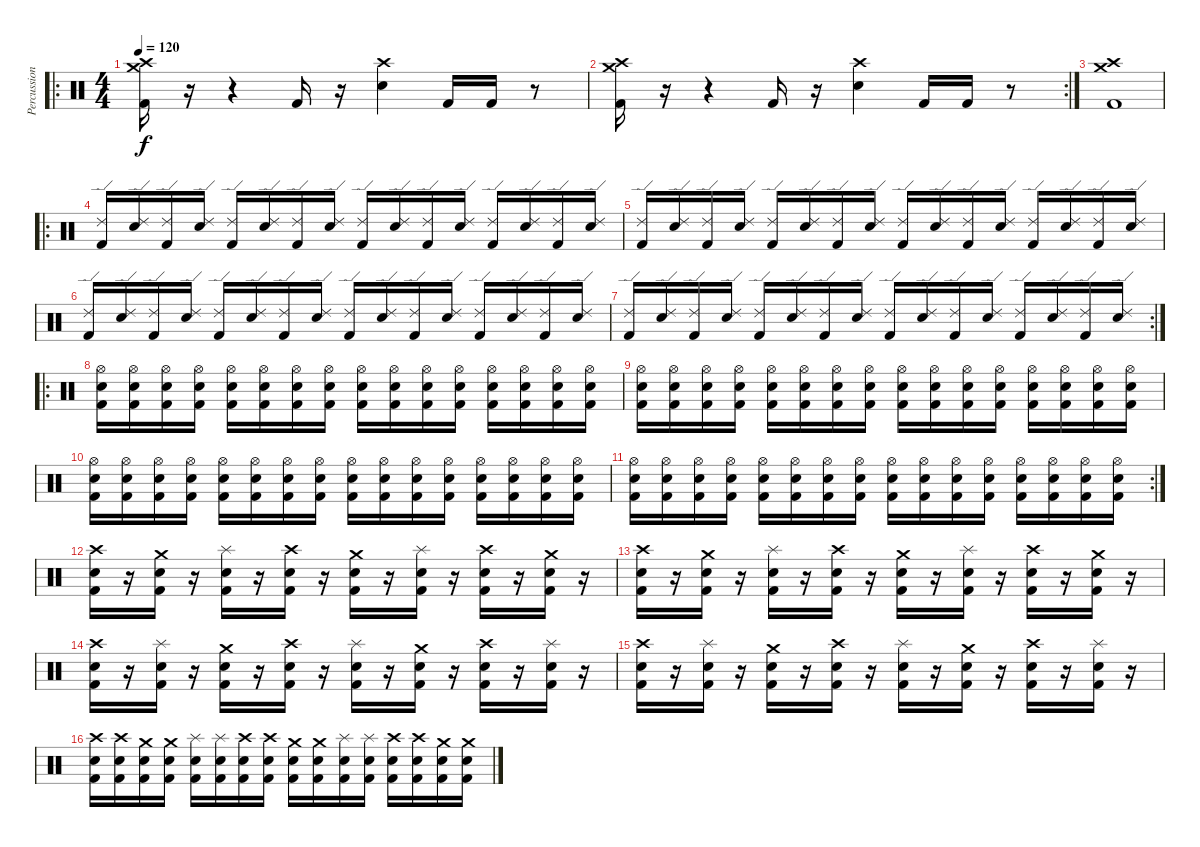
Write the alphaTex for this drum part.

\track ("Percussion" "Percussion") {instrument percussion}
\staff {score}
\articulation defaults
\ro
\ts (4 4)
\tempo 120
\clef neutral
\ks c
("Crash medium (hit)" "Crash high (hit)" "Kick (hit) 2").16{dy f} r.16 r.4 "Kick (hit) 2".16 r.16 ("Crash high (hit)" "Snare (hit) 2").4 "Kick (hit) 2".16 "Kick (hit) 2".16 r.8 |
\rc 2
("Crash medium (hit)" "Crash high (hit)" "Kick (hit) 2").16 r.16 r.4 "Kick (hit) 2".16 r.16 ("Crash high (hit)" "Snare (hit) 2").4 "Kick (hit) 2".16 "Kick (hit) 2".16 r.8 |
("Crash medium (hit)" "Crash high (hit)" "Kick (hit) 2").1 |
\ro
("Ride (edge) 2" "Kick (hit) 2").16 ("Ride (edge) 2" "Snare (hit) 2").16 ("Ride (edge) 2" "Kick (hit) 2").16 ("Ride (edge) 2" "Snare (hit) 2").16 ("Ride (edge) 2" "Kick (hit) 2").16 ("Ride (edge) 2" "Snare (hit) 2").16 ("Ride (edge) 2" "Kick (hit) 2").16 ("Ride (edge) 2" "Snare (hit) 2").16 ("Ride (edge) 2" "Kick (hit) 2").16 ("Ride (edge) 2" "Snare (hit) 2").16 ("Ride (edge) 2" "Kick (hit) 2").16 ("Ride (edge) 2" "Snare (hit) 2").16 ("Ride (edge) 2" "Kick (hit) 2").16 ("Ride (edge) 2" "Snare (hit) 2").16 ("Ride (edge) 2" "Kick (hit) 2").16 ("Ride (edge) 2" "Snare (hit) 2").16 |
("Ride (edge) 2" "Kick (hit) 2").16 ("Ride (edge) 2" "Snare (hit) 2").16 ("Ride (edge) 2" "Kick (hit) 2").16 ("Ride (edge) 2" "Snare (hit) 2").16 ("Ride (edge) 2" "Kick (hit) 2").16 ("Ride (edge) 2" "Snare (hit) 2").16 ("Ride (edge) 2" "Kick (hit) 2").16 ("Ride (edge) 2" "Snare (hit) 2").16 ("Ride (edge) 2" "Kick (hit) 2").16 ("Ride (edge) 2" "Snare (hit) 2").16 ("Ride (edge) 2" "Kick (hit) 2").16 ("Ride (edge) 2" "Snare (hit) 2").16 ("Ride (edge) 2" "Kick (hit) 2").16 ("Ride (edge) 2" "Snare (hit) 2").16 ("Ride (edge) 2" "Kick (hit) 2").16 ("Ride (edge) 2" "Snare (hit) 2").16 |
("Ride (edge) 2" "Kick (hit) 2").16 ("Ride (edge) 2" "Snare (hit) 2").16 ("Ride (edge) 2" "Kick (hit) 2").16 ("Ride (edge) 2" "Snare (hit) 2").16 ("Ride (edge) 2" "Kick (hit) 2").16 ("Ride (edge) 2" "Snare (hit) 2").16 ("Ride (edge) 2" "Kick (hit) 2").16 ("Ride (edge) 2" "Snare (hit) 2").16 ("Ride (edge) 2" "Kick (hit) 2").16 ("Ride (edge) 2" "Snare (hit) 2").16 ("Ride (edge) 2" "Kick (hit) 2").16 ("Ride (edge) 2" "Snare (hit) 2").16 ("Ride (edge) 2" "Kick (hit) 2").16 ("Ride (edge) 2" "Snare (hit) 2").16 ("Ride (edge) 2" "Kick (hit) 2").16 ("Ride (edge) 2" "Snare (hit) 2").16 |
\rc 2
("Ride (edge) 2" "Kick (hit) 2").16 ("Ride (edge) 2" "Snare (hit) 2").16 ("Ride (edge) 2" "Kick (hit) 2").16 ("Ride (edge) 2" "Snare (hit) 2").16 ("Ride (edge) 2" "Kick (hit) 2").16 ("Ride (edge) 2" "Snare (hit) 2").16 ("Ride (edge) 2" "Kick (hit) 2").16 ("Ride (edge) 2" "Snare (hit) 2").16 ("Ride (edge) 2" "Kick (hit) 2").16 ("Ride (edge) 2" "Snare (hit) 2").16 ("Ride (edge) 2" "Kick (hit) 2").16 ("Ride (edge) 2" "Snare (hit) 2").16 ("Ride (edge) 2" "Kick (hit) 2").16 ("Ride (edge) 2" "Snare (hit) 2").16 ("Ride (edge) 2" "Kick (hit) 2").16 ("Ride (edge) 2" "Snare (hit) 2").16 |
\ro
("Hi-Hat (open)" "Snare (hit) 2" "Kick (hit) 2").16 ("Hi-Hat (open)" "Snare (hit) 2" "Kick (hit) 2").16 ("Hi-Hat (open)" "Snare (hit) 2" "Kick (hit) 2").16 ("Hi-Hat (open)" "Snare (hit) 2" "Kick (hit) 2").16 ("Hi-Hat (open)" "Snare (hit) 2" "Kick (hit) 2").16 ("Hi-Hat (open)" "Snare (hit) 2" "Kick (hit) 2").16 ("Hi-Hat (open)" "Snare (hit) 2" "Kick (hit) 2").16 ("Hi-Hat (open)" "Snare (hit) 2" "Kick (hit) 2").16 ("Hi-Hat (open)" "Snare (hit) 2" "Kick (hit) 2").16 ("Hi-Hat (open)" "Snare (hit) 2" "Kick (hit) 2").16 ("Hi-Hat (open)" "Snare (hit) 2" "Kick (hit) 2").16 ("Hi-Hat (open)" "Snare (hit) 2" "Kick (hit) 2").16 ("Hi-Hat (open)" "Snare (hit) 2" "Kick (hit) 2").16 ("Hi-Hat (open)" "Snare (hit) 2" "Kick (hit) 2").16 ("Hi-Hat (open)" "Snare (hit) 2" "Kick (hit) 2").16 ("Hi-Hat (open)" "Snare (hit) 2" "Kick (hit) 2").16 |
("Hi-Hat (open)" "Snare (hit) 2" "Kick (hit) 2").16 ("Hi-Hat (open)" "Snare (hit) 2" "Kick (hit) 2").16 ("Hi-Hat (open)" "Snare (hit) 2" "Kick (hit) 2").16 ("Hi-Hat (open)" "Snare (hit) 2" "Kick (hit) 2").16 ("Hi-Hat (open)" "Snare (hit) 2" "Kick (hit) 2").16 ("Hi-Hat (open)" "Snare (hit) 2" "Kick (hit) 2").16 ("Hi-Hat (open)" "Snare (hit) 2" "Kick (hit) 2").16 ("Hi-Hat (open)" "Snare (hit) 2" "Kick (hit) 2").16 ("Hi-Hat (open)" "Snare (hit) 2" "Kick (hit) 2").16 ("Hi-Hat (open)" "Snare (hit) 2" "Kick (hit) 2").16 ("Hi-Hat (open)" "Snare (hit) 2" "Kick (hit) 2").16 ("Hi-Hat (open)" "Snare (hit) 2" "Kick (hit) 2").16 ("Hi-Hat (open)" "Snare (hit) 2" "Kick (hit) 2").16 ("Hi-Hat (open)" "Snare (hit) 2" "Kick (hit) 2").16 ("Hi-Hat (open)" "Snare (hit) 2" "Kick (hit) 2").16 ("Hi-Hat (open)" "Snare (hit) 2" "Kick (hit) 2").16 |
("Hi-Hat (open)" "Snare (hit) 2" "Kick (hit) 2").16 ("Hi-Hat (open)" "Snare (hit) 2" "Kick (hit) 2").16 ("Hi-Hat (open)" "Snare (hit) 2" "Kick (hit) 2").16 ("Hi-Hat (open)" "Snare (hit) 2" "Kick (hit) 2").16 ("Hi-Hat (open)" "Snare (hit) 2" "Kick (hit) 2").16 ("Hi-Hat (open)" "Snare (hit) 2" "Kick (hit) 2").16 ("Hi-Hat (open)" "Snare (hit) 2" "Kick (hit) 2").16 ("Hi-Hat (open)" "Snare (hit) 2" "Kick (hit) 2").16 ("Hi-Hat (open)" "Snare (hit) 2" "Kick (hit) 2").16 ("Hi-Hat (open)" "Snare (hit) 2" "Kick (hit) 2").16 ("Hi-Hat (open)" "Snare (hit) 2" "Kick (hit) 2").16 ("Hi-Hat (open)" "Snare (hit) 2" "Kick (hit) 2").16 ("Hi-Hat (open)" "Snare (hit) 2" "Kick (hit) 2").16 ("Hi-Hat (open)" "Snare (hit) 2" "Kick (hit) 2").16 ("Hi-Hat (open)" "Snare (hit) 2" "Kick (hit) 2").16 ("Hi-Hat (open)" "Snare (hit) 2" "Kick (hit) 2").16 |
\rc 2
("Hi-Hat (open)" "Snare (hit) 2" "Kick (hit) 2").16 ("Hi-Hat (open)" "Snare (hit) 2" "Kick (hit) 2").16 ("Hi-Hat (open)" "Snare (hit) 2" "Kick (hit) 2").16 ("Hi-Hat (open)" "Snare (hit) 2" "Kick (hit) 2").16 ("Hi-Hat (open)" "Snare (hit) 2" "Kick (hit) 2").16 ("Hi-Hat (open)" "Snare (hit) 2" "Kick (hit) 2").16 ("Hi-Hat (open)" "Snare (hit) 2" "Kick (hit) 2").16 ("Hi-Hat (open)" "Snare (hit) 2" "Kick (hit) 2").16 ("Hi-Hat (open)" "Snare (hit) 2" "Kick (hit) 2").16 ("Hi-Hat (open)" "Snare (hit) 2" "Kick (hit) 2").16 ("Hi-Hat (open)" "Snare (hit) 2" "Kick (hit) 2").16 ("Hi-Hat (open)" "Snare (hit) 2" "Kick (hit) 2").16 ("Hi-Hat (open)" "Snare (hit) 2" "Kick (hit) 2").16 ("Hi-Hat (open)" "Snare (hit) 2" "Kick (hit) 2").16 ("Hi-Hat (open)" "Snare (hit) 2" "Kick (hit) 2").16 ("Hi-Hat (open)" "Snare (hit) 2" "Kick (hit) 2").16 |
("Crash high (hit)" "Snare (hit) 2" "Kick (hit) 2").16 r.16 ("Crash medium (hit)" "Snare (hit) 2" "Kick (hit) 2").16 r.16 ("Splash (hit)" "Snare (hit) 2" "Kick (hit) 2").16 r.16 ("Crash high (hit)" "Snare (hit) 2" "Kick (hit) 2").16 r.16 ("Crash medium (hit)" "Snare (hit) 2" "Kick (hit) 2").16 r.16 ("Splash (hit)" "Snare (hit) 2" "Kick (hit) 2").16 r.16 ("Crash high (hit)" "Snare (hit) 2" "Kick (hit) 2").16 r.16 ("Crash medium (hit)" "Snare (hit) 2" "Kick (hit) 2").16 r.16 |
("Crash high (hit)" "Snare (hit) 2" "Kick (hit) 2").16 r.16 ("Crash medium (hit)" "Snare (hit) 2" "Kick (hit) 2").16 r.16 ("Splash (hit)" "Snare (hit) 2" "Kick (hit) 2").16 r.16 ("Crash high (hit)" "Snare (hit) 2" "Kick (hit) 2").16 r.16 ("Crash medium (hit)" "Snare (hit) 2" "Kick (hit) 2").16 r.16 ("Splash (hit)" "Snare (hit) 2" "Kick (hit) 2").16 r.16 ("Crash high (hit)" "Snare (hit) 2" "Kick (hit) 2").16 r.16 ("Crash medium (hit)" "Snare (hit) 2" "Kick (hit) 2").16 r.16 |
("Crash high (hit)" "Snare (hit) 2" "Kick (hit) 2").16 r.16 ("Splash (hit)" "Snare (hit) 2" "Kick (hit) 2").16 r.16 ("Crash medium (hit)" "Snare (hit) 2" "Kick (hit) 2").16 r.16 ("Crash high (hit)" "Snare (hit) 2" "Kick (hit) 2").16 r.16 ("Splash (hit)" "Snare (hit) 2" "Kick (hit) 2").16 r.16 ("Crash medium (hit)" "Snare (hit) 2" "Kick (hit) 2").16 r.16 ("Crash high (hit)" "Snare (hit) 2" "Kick (hit) 2").16 r.16 ("Splash (hit)" "Snare (hit) 2" "Kick (hit) 2").16 r.16 |
("Crash high (hit)" "Snare (hit) 2" "Kick (hit) 2").16 r.16 ("Splash (hit)" "Snare (hit) 2" "Kick (hit) 2").16 r.16 ("Crash medium (hit)" "Snare (hit) 2" "Kick (hit) 2").16 r.16 ("Crash high (hit)" "Snare (hit) 2" "Kick (hit) 2").16 r.16 ("Splash (hit)" "Snare (hit) 2" "Kick (hit) 2").16 r.16 ("Crash medium (hit)" "Snare (hit) 2" "Kick (hit) 2").16 r.16 ("Crash high (hit)" "Snare (hit) 2" "Kick (hit) 2").16 r.16 ("Splash (hit)" "Snare (hit) 2" "Kick (hit) 2").16 r.16 |
("Crash high (hit)" "Snare (hit) 2" "Kick (hit) 2").16 ("Crash high (hit)" "Snare (hit) 2" "Kick (hit) 2").16 ("Crash medium (hit)" "Snare (hit) 2" "Kick (hit) 2").16 ("Crash medium (hit)" "Snare (hit) 2" "Kick (hit) 2").16 ("Splash (hit)" "Snare (hit) 2" "Kick (hit) 2").16 ("Splash (hit)" "Snare (hit) 2" "Kick (hit) 2").16 ("Crash high (hit)" "Snare (hit) 2" "Kick (hit) 2").16 ("Crash high (hit)" "Snare (hit) 2" "Kick (hit) 2").16 ("Crash medium (hit)" "Snare (hit) 2" "Kick (hit) 2").16 ("Crash medium (hit)" "Snare (hit) 2" "Kick (hit) 2").16 ("Splash (hit)" "Snare (hit) 2" "Kick (hit) 2").16 ("Splash (hit)" "Snare (hit) 2" "Kick (hit) 2").16 ("Crash high (hit)" "Snare (hit) 2" "Kick (hit) 2").16 ("Crash high (hit)" "Snare (hit) 2" "Kick (hit) 2").16 ("Crash medium (hit)" "Snare (hit) 2" "Kick (hit) 2").16 ("Crash medium (hit)" "Snare (hit) 2" "Kick (hit) 2").16
